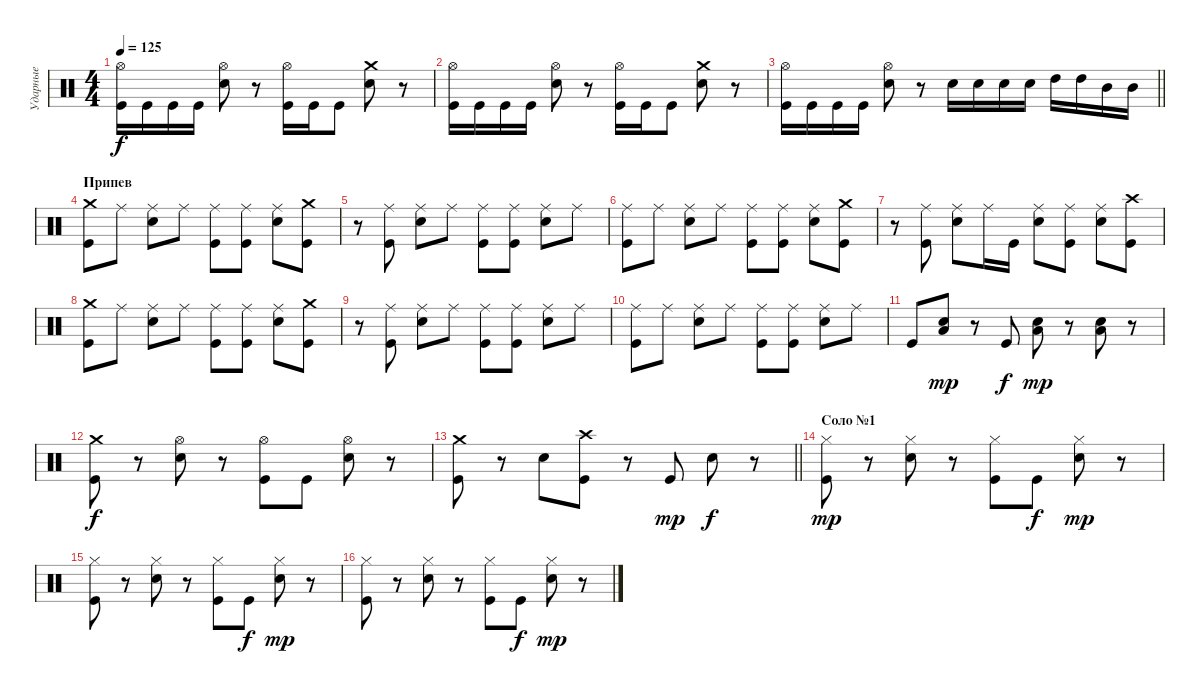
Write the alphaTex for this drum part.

\track ("Ударные" "Ударные") {instrument percussion}
\staff {score}
\articulation defaults
\ts (4 4)
\tempo 125
\clef neutral
\ks c
("Hi-Hat (open)" "Kick (hit)").16{dy f} "Kick (hit)".16 "Kick (hit)".16 "Kick (hit)".16 ("Hi-Hat (open)" "Electric Snare (hit)").8 r.8 ("Hi-Hat (open)" "Kick (hit)").16 "Kick (hit)".16 "Kick (hit)".8 ("Crash medium (hit)" "Electric Snare (hit)").8 r.8 |
("Hi-Hat (open)" "Kick (hit)").16 "Kick (hit)".16 "Kick (hit)".16 "Kick (hit)".16 ("Hi-Hat (open)" "Electric Snare (hit)").8 r.8 ("Hi-Hat (open)" "Kick (hit)").16 "Kick (hit)".16 "Kick (hit)".8 ("Crash medium (hit)" "Electric Snare (hit)").8 r.8 |
\barLineRight lightlight
("Hi-Hat (open)" "Kick (hit)").16 "Kick (hit)".16 "Kick (hit)".16 "Kick (hit)".16 ("Hi-Hat (open)" "Electric Snare (hit)").8 r.8 "Electric Snare (hit)".16 "Electric Snare (hit)".16 "Electric Snare (hit)".16 "Electric Snare (hit)".16 "High Tom (hit)".16 "High Tom (hit)".16 "Mid Tom (hit)".16 "Mid Tom (hit)".16 |
\section ("" "Припев")
("Crash medium (hit)" "Kick (hit)").8 "Ride (middle)".8 ("Ride (middle)" "Electric Snare (hit)").8 "Ride (middle)".8 ("Ride (middle)" "Kick (hit)").8 ("Ride (middle)" "Kick (hit)").8 ("Ride (middle)" "Electric Snare (hit)").8 ("Crash medium (hit)" "Kick (hit)").8 |
r.8 ("Ride (middle)" "Kick (hit)").8 ("Ride (middle)" "Electric Snare (hit)").8 "Ride (middle)".8 ("Ride (middle)" "Kick (hit)").8 ("Ride (middle)" "Kick (hit)").8 ("Ride (middle)" "Electric Snare (hit)").8 "Ride (middle)".8 |
("Ride (middle)" "Kick (hit)").8 "Ride (middle)".8 ("Ride (middle)" "Electric Snare (hit)").8 "Ride (middle)".8 ("Ride (middle)" "Kick (hit)").8 ("Ride (middle)" "Kick (hit)").8 ("Ride (middle)" "Electric Snare (hit)").8 ("Crash medium (hit)" "Kick (hit)").8 |
r.8 ("Ride (middle)" "Kick (hit)").8 ("Ride (middle)" "Electric Snare (hit)").8 "Ride (middle)".16 "Kick (hit)".16 ("Ride (middle)" "Electric Snare (hit)").8 ("Ride (middle)" "Kick (hit)").8 ("Ride (middle)" "Electric Snare (hit)").8 ("Crash high (hit)" "Kick (hit)").8 |
("Crash medium (hit)" "Kick (hit)").8 "Ride (middle)".8 ("Ride (middle)" "Electric Snare (hit)").8 "Ride (middle)".8 ("Ride (middle)" "Kick (hit)").8 ("Ride (middle)" "Kick (hit)").8 ("Ride (middle)" "Electric Snare (hit)").8 ("Crash medium (hit)" "Kick (hit)").8 |
r.8 ("Ride (middle)" "Kick (hit)").8 ("Ride (middle)" "Electric Snare (hit)").8 "Ride (middle)".8 ("Ride (middle)" "Kick (hit)").8 ("Ride (middle)" "Kick (hit)").8 ("Ride (middle)" "Electric Snare (hit)").8 "Ride (middle)".8 |
("Ride (middle)" "Kick (hit)").8 "Ride (middle)".8 ("Ride (middle)" "Electric Snare (hit)").8 "Ride (middle)".8 ("Ride (middle)" "Kick (hit)").8 ("Ride (middle)" "Kick (hit)").8 ("Ride (middle)" "Electric Snare (hit)").8 "Ride (middle)".8 |
"Kick (hit)".8 ("Low Tom (hit)" "Electric Snare (hit)").8{dy mp} r.8 "Kick (hit)".8{dy f} ("Low Tom (hit)" "Electric Snare (hit)").8{dy mp} r.8 ("Low Tom (hit)" "Electric Snare (hit)").8 r.8 |
("Crash medium (hit)" "Kick (hit)").8{dy f} r.8 ("Hi-Hat (open)" "Electric Snare (hit)").8 r.8 ("Hi-Hat (open)" "Kick (hit)").8 "Kick (hit)".8 ("Hi-Hat (open)" "Electric Snare (hit)").8 r.8 |
\barLineRight lightlight
("Crash medium (hit)" "Kick (hit)").8 r.8 "Electric Snare (hit)".8 ("Crash high (hit)" "Kick (hit)").8 r.8 "Kick (hit)".8{dy mp} "Electric Snare (hit)".8{dy f} r.8 |
\section ("" "Соло №1")
("Hi-Hat (closed)" "Kick (hit)").8{dy mp} r.8 ("Hi-Hat (closed)" "Electric Snare (hit)").8 r.8 ("Hi-Hat (closed)" "Kick (hit)").8 "Kick (hit)".8{dy f} ("Hi-Hat (closed)" "Electric Snare (hit)").8{dy mp} r.8 |
("Hi-Hat (closed)" "Kick (hit)").8 r.8 ("Hi-Hat (closed)" "Electric Snare (hit)").8 r.8 ("Hi-Hat (closed)" "Kick (hit)").8 "Kick (hit)".8{dy f} ("Hi-Hat (closed)" "Electric Snare (hit)").8{dy mp} r.8 |
("Hi-Hat (closed)" "Kick (hit)").8 r.8 ("Hi-Hat (closed)" "Electric Snare (hit)").8 r.8 ("Hi-Hat (closed)" "Kick (hit)").8 "Kick (hit)".8{dy f} ("Hi-Hat (closed)" "Electric Snare (hit)").8{dy mp} r.8
